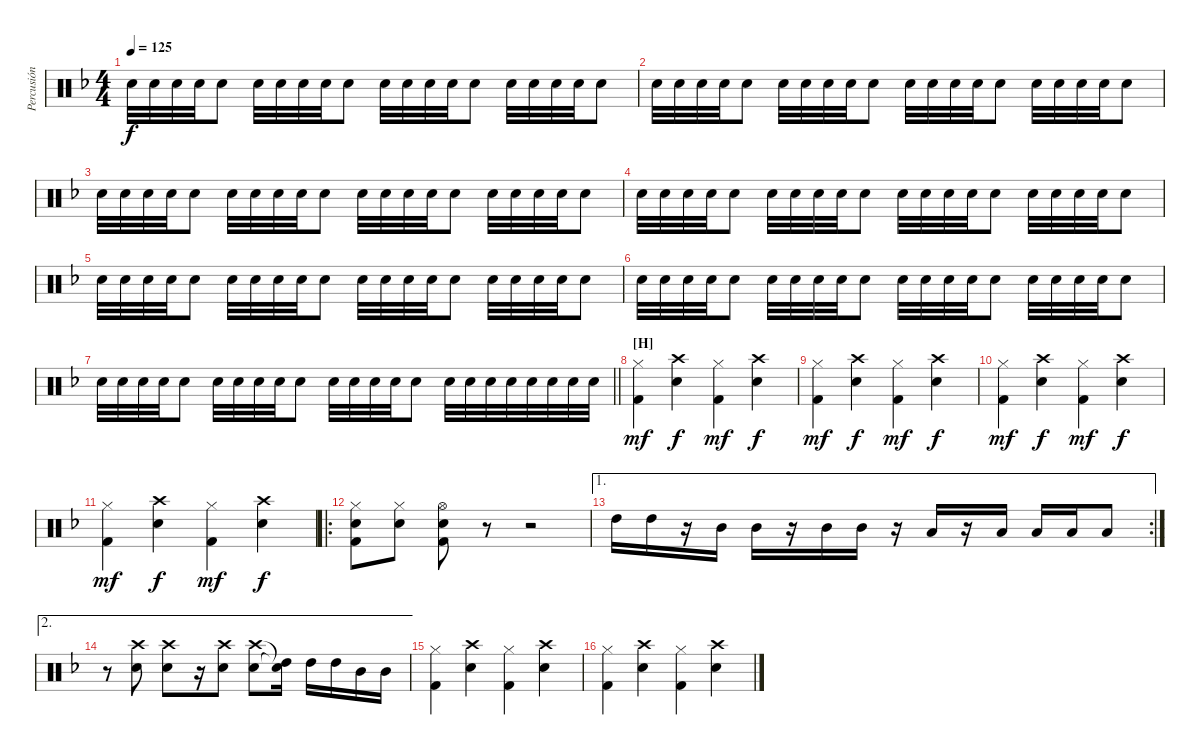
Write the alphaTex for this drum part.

\track ("Percusión" "Percusión") {instrument percussion}
\staff {score}
\articulation defaults
\ts (4 4)
\tempo 125
\clef neutral
\ks f "Snare (hit) 2".32{dy f} "Snare (hit) 2".32 "Snare (hit) 2".32 "Snare (hit) 2".32 "Snare (hit) 2".8 "Snare (hit) 2".32 "Snare (hit) 2".32 "Snare (hit) 2".32 "Snare (hit) 2".32 "Snare (hit) 2".8 "Snare (hit) 2".32 "Snare (hit) 2".32 "Snare (hit) 2".32 "Snare (hit) 2".32 "Snare (hit) 2".8 "Snare (hit) 2".32 "Snare (hit) 2".32 "Snare (hit) 2".32 "Snare (hit) 2".32 "Snare (hit) 2".8
|
"Snare (hit) 2".32 "Snare (hit) 2".32 "Snare (hit) 2".32 "Snare (hit) 2".32 "Snare (hit) 2".8 "Snare (hit) 2".32 "Snare (hit) 2".32 "Snare (hit) 2".32 "Snare (hit) 2".32 "Snare (hit) 2".8 "Snare (hit) 2".32 "Snare (hit) 2".32 "Snare (hit) 2".32 "Snare (hit) 2".32 "Snare (hit) 2".8 "Snare (hit) 2".32 "Snare (hit) 2".32 "Snare (hit) 2".32 "Snare (hit) 2".32 "Snare (hit) 2".8 |
"Snare (hit) 2".32 "Snare (hit) 2".32 "Snare (hit) 2".32 "Snare (hit) 2".32 "Snare (hit) 2".8 "Snare (hit) 2".32 "Snare (hit) 2".32 "Snare (hit) 2".32 "Snare (hit) 2".32 "Snare (hit) 2".8 "Snare (hit) 2".32 "Snare (hit) 2".32 "Snare (hit) 2".32 "Snare (hit) 2".32 "Snare (hit) 2".8 "Snare (hit) 2".32 "Snare (hit) 2".32 "Snare (hit) 2".32 "Snare (hit) 2".32 "Snare (hit) 2".8 |
"Snare (hit) 2".32 "Snare (hit) 2".32 "Snare (hit) 2".32 "Snare (hit) 2".32 "Snare (hit) 2".8 "Snare (hit) 2".32 "Snare (hit) 2".32 "Snare (hit) 2".32 "Snare (hit) 2".32 "Snare (hit) 2".8 "Snare (hit) 2".32 "Snare (hit) 2".32 "Snare (hit) 2".32 "Snare (hit) 2".32 "Snare (hit) 2".8 "Snare (hit) 2".32 "Snare (hit) 2".32 "Snare (hit) 2".32 "Snare (hit) 2".32 "Snare (hit) 2".8 |
"Snare (hit) 2".32 "Snare (hit) 2".32 "Snare (hit) 2".32 "Snare (hit) 2".32 "Snare (hit) 2".8 "Snare (hit) 2".32 "Snare (hit) 2".32 "Snare (hit) 2".32 "Snare (hit) 2".32 "Snare (hit) 2".8 "Snare (hit) 2".32 "Snare (hit) 2".32 "Snare (hit) 2".32 "Snare (hit) 2".32 "Snare (hit) 2".8 "Snare (hit) 2".32 "Snare (hit) 2".32 "Snare (hit) 2".32 "Snare (hit) 2".32 "Snare (hit) 2".8 |
"Snare (hit) 2".32 "Snare (hit) 2".32 "Snare (hit) 2".32 "Snare (hit) 2".32 "Snare (hit) 2".8 "Snare (hit) 2".32 "Snare (hit) 2".32 "Snare (hit) 2".32 "Snare (hit) 2".32 "Snare (hit) 2".8 "Snare (hit) 2".32 "Snare (hit) 2".32 "Snare (hit) 2".32 "Snare (hit) 2".32 "Snare (hit) 2".8 "Snare (hit) 2".32 "Snare (hit) 2".32 "Snare (hit) 2".32 "Snare (hit) 2".32 "Snare (hit) 2".8 |
\barLineRight lightlight "Snare (hit) 2".32 "Snare (hit) 2".32 "Snare (hit) 2".32 "Snare (hit) 2".32 "Snare (hit) 2".8 "Snare (hit) 2".32 "Snare (hit) 2".32 "Snare (hit) 2".32 "Snare (hit) 2".32 "Snare (hit) 2".8 "Snare (hit) 2".32 "Snare (hit) 2".32 "Snare (hit) 2".32 "Snare (hit) 2".32 "Snare (hit) 2".8 "Snare (hit) 2".32 "Snare (hit) 2".32 "Snare (hit) 2".32 "Snare (hit) 2".32 "Snare (hit) 2".32 "Snare (hit) 2".32 "Snare (hit) 2".32 "Snare (hit) 2".32
|
\section ("" "[H]")
("Hi-Hat (closed)" "Kick (hit) 2").4{dy mf} ("Crash high (hit)" "Snare (hit) 2").4{dy f} ("Hi-Hat (closed)" "Kick (hit) 2").4{dy mf} ("Crash high (hit)" "Snare (hit) 2").4{dy f} |
("Hi-Hat (closed)" "Kick (hit) 2").4{dy mf} ("Crash high (hit)" "Snare (hit) 2").4{dy f} ("Hi-Hat (closed)" "Kick (hit) 2").4{dy mf} ("Crash high (hit)" "Snare (hit) 2").4{dy f} |
("Hi-Hat (closed)" "Kick (hit) 2").4{dy mf} ("Crash high (hit)" "Snare (hit) 2").4{dy f} ("Hi-Hat (closed)" "Kick (hit) 2").4{dy mf} ("Crash high (hit)" "Snare (hit) 2").4{dy f} |
("Hi-Hat (closed)" "Kick (hit) 2").4{dy mf} ("Crash high (hit)" "Snare (hit) 2").4{dy f} ("Hi-Hat (closed)" "Kick (hit) 2").4{dy mf} ("Crash high (hit)" "Snare (hit) 2").4{dy f} |
\ro
("Snare (hit) 2" "Hi-Hat (closed)" "Kick (hit) 2").8 ("Snare (hit) 2" "Hi-Hat (closed)").8 ("Hi-Hat (open)" "Snare (hit) 2" "Kick (hit) 2").8 r.8 r.2 |
\ae 1
\rc 2 "High Tom (hit)".16 "High Tom (hit)".16
r.16 "Mid Tom (hit)".16 "Mid Tom (hit)".16 r.16 "Mid Tom (hit)".16 "Mid Tom (hit)".16 r.16 "Low Floor Tom (hit)".16 r.16 "Low Floor Tom (hit)".16 "Low Floor Tom (hit)".16 "Low Floor Tom (hit)".16 "Low Floor Tom (hit)".8 |
\ae 2
r.8 ("Crash high (hit)" "Snare (hit) 2").8 ("Crash high (hit)" "Snare (hit) 2").8 r.16 ("Crash high (hit)" "Snare (hit) 2").8 ("Crash high (hit)" "Snare (hit) 2").8 ("Snare (hit)"{t} "High Tom (hit)"{t}).16 "High Tom (hit)".16 "High Tom (hit)".16 "Mid Tom (hit)".16 "Mid Tom (hit)".16 |
("Hi-Hat (closed)" "Kick (hit) 2").4 ("Crash high (hit)" "Snare (hit) 2").4 ("Hi-Hat (closed)" "Kick (hit) 2").4 ("Crash high (hit)" "Snare (hit) 2").4 |
("Hi-Hat (closed)" "Kick (hit) 2").4 ("Crash high (hit)" "Snare (hit) 2").4 ("Hi-Hat (closed)" "Kick (hit) 2").4 ("Crash high (hit)" "Snare (hit) 2").4
